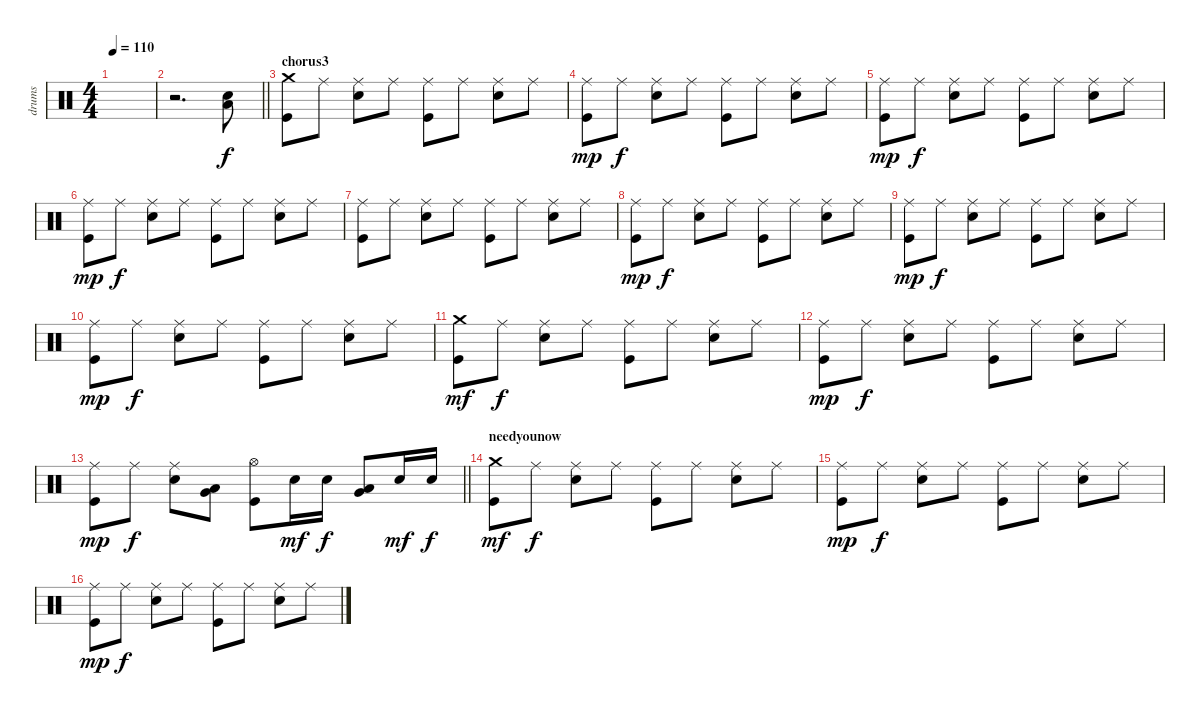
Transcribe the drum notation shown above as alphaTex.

\track ("drums" "drums") {instrument percussion}
\staff {score}
\articulation defaults
\ts (4 4)
\tempo 110
\clef neutral
\ks c
|
\barLineRight lightlight
r.2{d} ("Low Floor Tom (hit)" "Snare (hit) 2").8 |
\section ("" "chorus3")
("Crash medium (hit)" "Kick (hit)").8 "Ride (middle)".8{dy f} ("Ride (middle)" "Snare (hit) 2").8 "Ride (middle)".8 ("Ride (middle)" "Kick (hit)").8 "Ride (middle)".8 ("Ride (middle)" "Snare (hit) 2").8 "Ride (middle)".8 |
("Ride (middle)" "Kick (hit)").8{dy mp} "Ride (middle)".8{dy f} ("Ride (middle)" "Snare (hit) 2").8 "Ride (middle)".8 ("Ride (middle)" "Kick (hit)").8 "Ride (middle)".8 ("Ride (middle)" "Snare (hit) 2").8 "Ride (middle)".8 |
("Ride (middle)" "Kick (hit)").8{dy mp} "Ride (middle)".8{dy f} ("Ride (middle)" "Snare (hit) 2").8 "Ride (middle)".8 ("Ride (middle)" "Kick (hit)").8 "Ride (middle)".8 ("Ride (middle)" "Snare (hit) 2").8 "Ride (middle)".8 |
("Ride (middle)" "Kick (hit)").8{dy mp} "Ride (middle)".8{dy f} ("Ride (middle)" "Snare (hit) 2").8 "Ride (middle)".8 ("Ride (middle)" "Kick (hit)").8 "Ride (middle)".8 ("Ride (middle)" "Snare (hit) 2").8 "Ride (middle)".8 |
("Ride (middle)" "Kick (hit)").8 "Ride (middle)".8 ("Ride (middle)" "Snare (hit) 2").8 "Ride (middle)".8 ("Ride (middle)" "Kick (hit)").8 "Ride (middle)".8 ("Ride (middle)" "Snare (hit) 2").8 "Ride (middle)".8 |
("Ride (middle)" "Kick (hit)").8{dy mp} "Ride (middle)".8{dy f} ("Ride (middle)" "Snare (hit) 2").8 "Ride (middle)".8 ("Ride (middle)" "Kick (hit)").8 "Ride (middle)".8 ("Ride (middle)" "Snare (hit) 2").8 "Ride (middle)".8 |
("Ride (middle)" "Kick (hit)").8{dy mp} "Ride (middle)".8{dy f} ("Ride (middle)" "Snare (hit) 2").8 "Ride (middle)".8 ("Ride (middle)" "Kick (hit)").8 "Ride (middle)".8 ("Ride (middle)" "Snare (hit) 2").8 "Ride (middle)".8 |
("Ride (middle)" "Kick (hit)").8{dy mp} "Ride (middle)".8{dy f} ("Ride (middle)" "Snare (hit) 2").8 "Ride (middle)".8 ("Ride (middle)" "Kick (hit)").8 "Ride (middle)".8 ("Ride (middle)" "Snare (hit) 2").8 "Ride (middle)".8 |
("Crash medium (hit)" "Kick (hit)").8{dy mf} "Ride (middle)".8{dy f} ("Ride (middle)" "Snare (hit) 2").8 "Ride (middle)".8 ("Ride (middle)" "Kick (hit)").8 "Ride (middle)".8 ("Ride (middle)" "Snare (hit) 2").8 "Ride (middle)".8 |
("Ride (middle)" "Kick (hit)").8{dy mp} "Ride (middle)".8{dy f} ("Ride (middle)" "Snare (hit) 2").8 "Ride (middle)".8 ("Ride (middle)" "Kick (hit)").8 "Ride (middle)".8 ("Ride (middle)" "Snare (hit) 2").8 "Ride (middle)".8 |
\barLineRight lightlight
("Ride (middle)" "Kick (hit)").8{dy mp} "Ride (middle)".8{dy f} ("Ride (middle)" "Snare (hit) 2").8 ("Low Tom (hit)" "Very Low Tom (hit)").8 ("Hi-Hat (open)" "Kick (hit)").8 "Snare (hit) 2".16{dy mf} "Snare (hit) 2".16{dy f} ("Low Floor Tom (hit)" "Very Low Tom (hit)").8 "Snare (hit) 2".16{dy mf} "Snare (hit) 2".16{dy f} |
\section ("" "needyounow")
("Crash medium (hit)" "Kick (hit)").8{dy mf} "Ride (middle)".8{dy f} ("Ride (middle)" "Snare (hit) 2").8 "Ride (middle)".8 ("Ride (middle)" "Kick (hit)").8 "Ride (middle)".8 ("Ride (middle)" "Snare (hit) 2").8 "Ride (middle)".8 |
("Ride (middle)" "Kick (hit)").8{dy mp} "Ride (middle)".8{dy f} ("Ride (middle)" "Snare (hit) 2").8 "Ride (middle)".8 ("Ride (middle)" "Kick (hit)").8 "Ride (middle)".8 ("Ride (middle)" "Snare (hit) 2").8 "Ride (middle)".8 |
("Ride (middle)" "Kick (hit)").8{dy mp} "Ride (middle)".8{dy f} ("Ride (middle)" "Snare (hit) 2").8 "Ride (middle)".8 ("Ride (middle)" "Kick (hit)").8 "Ride (middle)".8 ("Ride (middle)" "Snare (hit) 2").8 "Ride (middle)".8
